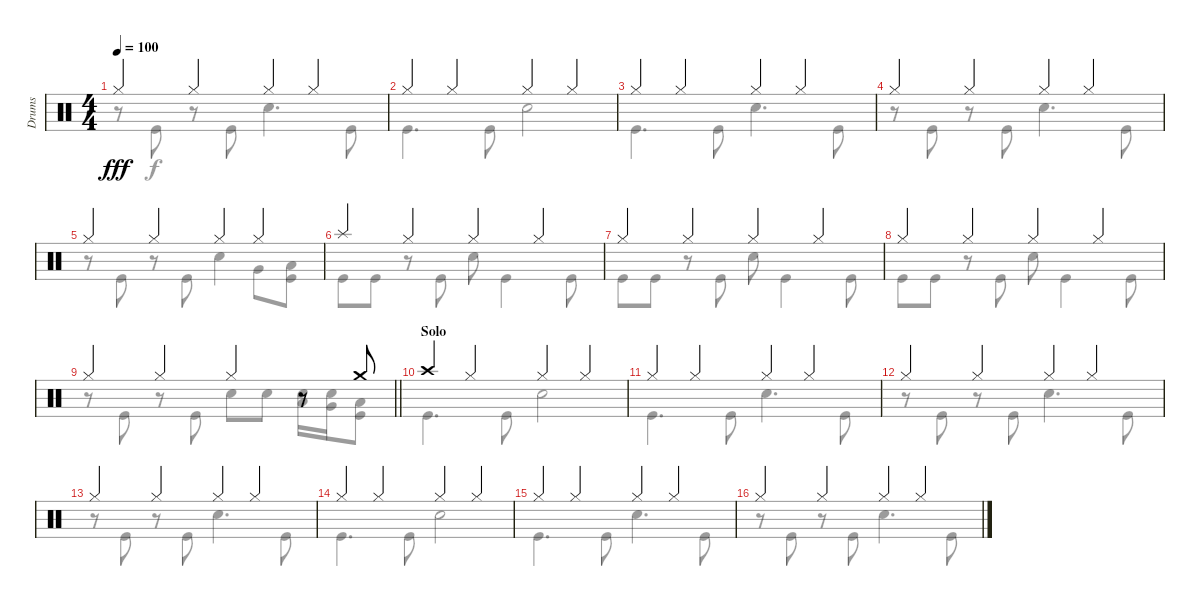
\track ("Drums" "Drums") {instrument percussion}
\staff {score}
\articulation defaults
\voice
\ts (4 4)
\tempo 100
\clef neutral
\ks c "Hi-Hat (closed)".4{dy fff} "Hi-Hat (closed)".4 "Hi-Hat (closed)".4 "Hi-Hat (closed)".4
|
"Hi-Hat (closed)".4 "Hi-Hat (closed)".4 "Hi-Hat (closed)".4 "Hi-Hat (closed)".4 |
"Hi-Hat (closed)".4 "Hi-Hat (closed)".4 "Hi-Hat (closed)".4 "Hi-Hat (closed)".4 |
"Hi-Hat (closed)".4 "Hi-Hat (closed)".4 "Hi-Hat (closed)".4 "Hi-Hat (closed)".4 |
"Hi-Hat (closed)".4 "Hi-Hat (closed)".4 "Hi-Hat (closed)".4 "Hi-Hat (closed)".4 |
"Splash (hit)".4 "Hi-Hat (closed)".4 "Hi-Hat (closed)".4 "Hi-Hat (closed)".4 |
"Hi-Hat (closed)".4 "Hi-Hat (closed)".4 "Hi-Hat (closed)".4 "Hi-Hat (closed)".4 |
"Hi-Hat (closed)".4 "Hi-Hat (closed)".4 "Hi-Hat (closed)".4 "Hi-Hat (closed)".4 |
\barLineRight lightlight "Hi-Hat (closed)".4 "Hi-Hat (closed)".4 "Hi-Hat (closed)".4
r.8 "Crash medium (hit)".8 |
\section ("" "Solo")
"Crash high (hit)".4 "Hi-Hat (closed)".4 "Hi-Hat (closed)".4 "Hi-Hat (closed)".4 |
"Hi-Hat (closed)".4 "Hi-Hat (closed)".4 "Hi-Hat (closed)".4 "Hi-Hat (closed)".4 |
"Hi-Hat (closed)".4 "Hi-Hat (closed)".4 "Hi-Hat (closed)".4 "Hi-Hat (closed)".4 |
"Hi-Hat (closed)".4 "Hi-Hat (closed)".4 "Hi-Hat (closed)".4 "Hi-Hat (closed)".4 |
"Hi-Hat (closed)".4 "Hi-Hat (closed)".4 "Hi-Hat (closed)".4 "Hi-Hat (closed)".4 |
"Hi-Hat (closed)".4 "Hi-Hat (closed)".4 "Hi-Hat (closed)".4 "Hi-Hat (closed)".4 |
"Hi-Hat (closed)".4 "Hi-Hat (closed)".4 "Hi-Hat (closed)".4 "Hi-Hat (closed)".4
\voice
\clef neutral
\ottava regular
\simile none
\ks c
r.8{dy f} "Kick (hit)".8 r.8 "Kick (hit)".8 "Snare (hit) 2".4{d} "Kick (hit)".8 |
"Kick (hit)".4{d} "Kick (hit)".8 "Snare (hit) 2".2 |
"Kick (hit)".4{d} "Kick (hit)".8 "Snare (hit) 2".4{d} "Kick (hit)".8 |
r.8 "Kick (hit)".8 r.8 "Kick (hit)".8 "Snare (hit) 2".4{d} "Kick (hit)".8 |
r.8 "Kick (hit)".8 r.8 "Kick (hit)".8 "Snare (hit) 2".4 "Very Low Tom (hit)".8 ("Low Floor Tom (hit)" "Kick (hit)").8 |
"Kick (hit)".8 "Kick (hit)".8 r.8 "Kick (hit)".8 "Snare (hit) 2".8 "Kick (hit)".4 "Kick (hit)".8 |
"Kick (hit)".8 "Kick (hit)".8 r.8 "Kick (hit)".8 "Snare (hit) 2".8 "Kick (hit)".4 "Kick (hit)".8 |
"Kick (hit)".8 "Kick (hit)".8 r.8 "Kick (hit)".8 "Snare (hit) 2".8 "Kick (hit)".4 "Kick (hit)".8 |
\barLineRight lightlight
r.8 "Kick (hit)".8 r.8 "Kick (hit)".8 "Snare (hit) 2".8 "Snare (hit) 2".8 ("Snare (hit) 2" "Low Tom (hit)").16 ("Snare (hit) 2" "Very Low Tom (hit)").16 ("Low Floor Tom (hit)" "Kick (hit)").8 |
"Kick (hit)".4{d} "Kick (hit)".8 "Snare (hit) 2".2 |
"Kick (hit)".4{d} "Kick (hit)".8 "Snare (hit) 2".4{d} "Kick (hit)".8 |
r.8 "Kick (hit)".8 r.8 "Kick (hit)".8 "Snare (hit) 2".4{d} "Kick (hit)".8 |
r.8 "Kick (hit)".8 r.8 "Kick (hit)".8 "Snare (hit) 2".4{d} "Kick (hit)".8 |
"Kick (hit)".4{d} "Kick (hit)".8 "Snare (hit) 2".2 |
"Kick (hit)".4{d} "Kick (hit)".8 "Snare (hit) 2".4{d} "Kick (hit)".8 |
r.8 "Kick (hit)".8 r.8 "Kick (hit)".8 "Snare (hit) 2".4{d} "Kick (hit)".8
